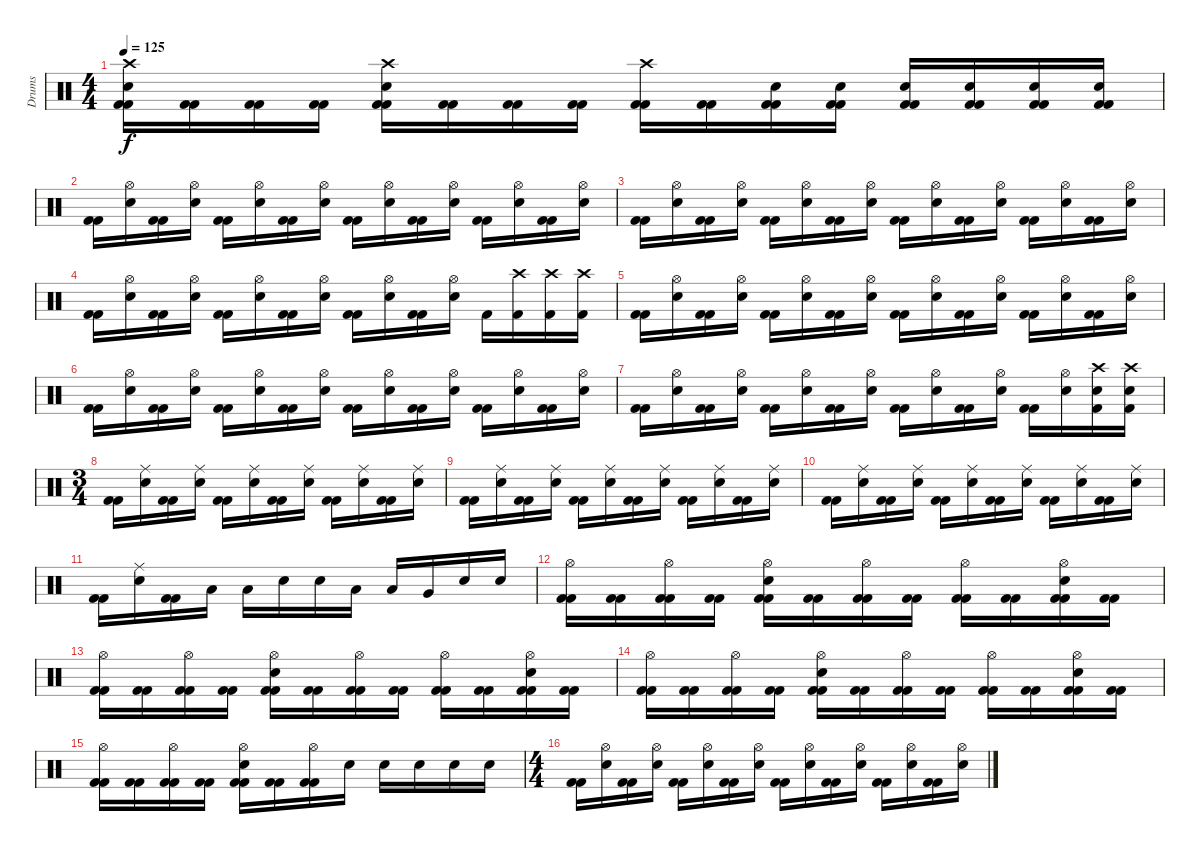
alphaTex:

\track ("Drums" "Drums") {instrument percussion}
\staff {score}
\articulation defaults
\ts (4 4)
\tempo 125
\clef neutral
\ks c
("Crash high (hit)" "Snare (hit) 2" "Kick (hit) 2" "Kick (hit) 2").16{dy f} ("Kick (hit) 2" "Kick (hit) 2").16 ("Kick (hit) 2" "Kick (hit) 2").16 ("Kick (hit) 2" "Kick (hit) 2").16 ("Crash high (hit)" "Snare (hit) 2" "Kick (hit) 2" "Kick (hit) 2").16 ("Kick (hit) 2" "Kick (hit) 2").16 ("Kick (hit) 2" "Kick (hit) 2").16 ("Kick (hit) 2" "Kick (hit) 2").16 ("Crash high (hit)" "Kick (hit) 2" "Kick (hit) 2").16 ("Kick (hit) 2" "Kick (hit) 2").16 ("Snare (hit) 2" "Kick (hit) 2" "Kick (hit) 2").16 ("Snare (hit) 2" "Kick (hit) 2" "Kick (hit) 2").16 ("Snare (hit) 2" "Kick (hit) 2" "Kick (hit) 2").16 ("Snare (hit) 2" "Kick (hit) 2" "Kick (hit) 2").16 ("Snare (hit) 2" "Kick (hit) 2" "Kick (hit) 2").16 ("Snare (hit) 2" "Kick (hit) 2" "Kick (hit) 2").16 |
("Kick (hit) 2" "Kick (hit) 2").16 ("Hi-Hat (open)" "Snare (hit) 2").16 ("Kick (hit) 2" "Kick (hit) 2").16 ("Hi-Hat (open)" "Snare (hit) 2").16 ("Kick (hit) 2" "Kick (hit) 2").16 ("Hi-Hat (open)" "Snare (hit) 2").16 ("Kick (hit) 2" "Kick (hit) 2").16 ("Hi-Hat (open)" "Snare (hit) 2").16 ("Kick (hit) 2" "Kick (hit) 2").16 ("Hi-Hat (open)" "Snare (hit) 2").16 ("Kick (hit) 2" "Kick (hit) 2").16 ("Hi-Hat (open)" "Snare (hit) 2").16 ("Kick (hit) 2" "Kick (hit) 2").16 ("Hi-Hat (open)" "Snare (hit) 2").16 ("Kick (hit) 2" "Kick (hit) 2").16 ("Hi-Hat (open)" "Snare (hit) 2").16 |
("Kick (hit) 2" "Kick (hit) 2").16 ("Hi-Hat (open)" "Snare (hit) 2").16 ("Kick (hit) 2" "Kick (hit) 2").16 ("Hi-Hat (open)" "Snare (hit) 2").16 ("Kick (hit) 2" "Kick (hit) 2").16 ("Hi-Hat (open)" "Snare (hit) 2").16 ("Kick (hit) 2" "Kick (hit) 2").16 ("Hi-Hat (open)" "Snare (hit) 2").16 ("Kick (hit) 2" "Kick (hit) 2").16 ("Hi-Hat (open)" "Snare (hit) 2").16 ("Kick (hit) 2" "Kick (hit) 2").16 ("Hi-Hat (open)" "Snare (hit) 2").16 ("Kick (hit) 2" "Kick (hit) 2").16 ("Hi-Hat (open)" "Snare (hit) 2").16 ("Kick (hit) 2" "Kick (hit) 2").16 ("Hi-Hat (open)" "Snare (hit) 2").16 |
("Kick (hit) 2" "Kick (hit) 2").16 ("Hi-Hat (open)" "Snare (hit) 2").16 ("Kick (hit) 2" "Kick (hit) 2").16 ("Hi-Hat (open)" "Snare (hit) 2").16 ("Kick (hit) 2" "Kick (hit) 2").16 ("Hi-Hat (open)" "Snare (hit) 2").16 ("Kick (hit) 2" "Kick (hit) 2").16 ("Hi-Hat (open)" "Snare (hit) 2").16 ("Kick (hit) 2" "Kick (hit) 2").16 ("Hi-Hat (open)" "Snare (hit) 2").16 ("Kick (hit) 2" "Kick (hit) 2").16 ("Hi-Hat (open)" "Snare (hit) 2").16 "Kick (hit) 2".16 ("Crash high (hit)" "Kick (hit) 2").16 ("Crash high (hit)" "Kick (hit) 2").16 ("Crash high (hit)" "Kick (hit) 2").16 |
("Kick (hit) 2" "Kick (hit) 2").16 ("Hi-Hat (open)" "Snare (hit) 2").16 ("Kick (hit) 2" "Kick (hit) 2").16 ("Hi-Hat (open)" "Snare (hit) 2").16 ("Kick (hit) 2" "Kick (hit) 2").16 ("Hi-Hat (open)" "Snare (hit) 2").16 ("Kick (hit) 2" "Kick (hit) 2").16 ("Hi-Hat (open)" "Snare (hit) 2").16 ("Kick (hit) 2" "Kick (hit) 2").16 ("Hi-Hat (open)" "Snare (hit) 2").16 ("Kick (hit) 2" "Kick (hit) 2").16 ("Hi-Hat (open)" "Snare (hit) 2").16 ("Kick (hit) 2" "Kick (hit) 2").16 ("Hi-Hat (open)" "Snare (hit) 2").16 ("Kick (hit) 2" "Kick (hit) 2").16 ("Hi-Hat (open)" "Snare (hit) 2").16 |
("Kick (hit) 2" "Kick (hit) 2").16 ("Hi-Hat (open)" "Snare (hit) 2").16 ("Kick (hit) 2" "Kick (hit) 2").16 ("Hi-Hat (open)" "Snare (hit) 2").16 ("Kick (hit) 2" "Kick (hit) 2").16 ("Hi-Hat (open)" "Snare (hit) 2").16 ("Kick (hit) 2" "Kick (hit) 2").16 ("Hi-Hat (open)" "Snare (hit) 2").16 ("Kick (hit) 2" "Kick (hit) 2").16 ("Hi-Hat (open)" "Snare (hit) 2").16 ("Kick (hit) 2" "Kick (hit) 2").16 ("Hi-Hat (open)" "Snare (hit) 2").16 ("Kick (hit) 2" "Kick (hit) 2").16 ("Hi-Hat (open)" "Snare (hit) 2").16 ("Kick (hit) 2" "Kick (hit) 2").16 ("Hi-Hat (open)" "Snare (hit) 2").16 |
("Kick (hit) 2" "Kick (hit) 2").16 ("Hi-Hat (open)" "Snare (hit) 2").16 ("Kick (hit) 2" "Kick (hit) 2").16 ("Hi-Hat (open)" "Snare (hit) 2").16 ("Kick (hit) 2" "Kick (hit) 2").16 ("Hi-Hat (open)" "Snare (hit) 2").16 ("Kick (hit) 2" "Kick (hit) 2").16 ("Hi-Hat (open)" "Snare (hit) 2").16 ("Kick (hit) 2" "Kick (hit) 2").16 ("Hi-Hat (open)" "Snare (hit) 2").16 ("Kick (hit) 2" "Kick (hit) 2").16 ("Hi-Hat (open)" "Snare (hit) 2").16 ("Kick (hit) 2" "Kick (hit) 2").16 ("Hi-Hat (open)" "Snare (hit) 2").16 ("Crash high (hit)" "Snare (hit) 2" "Kick (hit) 2").16 ("Crash high (hit)" "Snare (hit) 2" "Kick (hit) 2").16 |
\ts (3 4)
("Kick (hit) 2" "Kick (hit) 2").16 ("Ride (middle)" "Snare (hit) 2").16 ("Kick (hit) 2" "Kick (hit) 2").16 ("Ride (middle)" "Snare (hit) 2").16 ("Kick (hit) 2" "Kick (hit) 2").16 ("Ride (middle)" "Snare (hit) 2").16 ("Kick (hit) 2" "Kick (hit) 2").16 ("Ride (middle)" "Snare (hit) 2").16 ("Kick (hit) 2" "Kick (hit) 2").16 ("Ride (middle)" "Snare (hit) 2").16 ("Kick (hit) 2" "Kick (hit) 2").16 ("Ride (middle)" "Snare (hit) 2").16 |
("Kick (hit) 2" "Kick (hit) 2").16 ("Ride (middle)" "Snare (hit) 2").16 ("Kick (hit) 2" "Kick (hit) 2").16 ("Ride (middle)" "Snare (hit) 2").16 ("Kick (hit) 2" "Kick (hit) 2").16 ("Ride (middle)" "Snare (hit) 2").16 ("Kick (hit) 2" "Kick (hit) 2").16 ("Ride (middle)" "Snare (hit) 2").16 ("Kick (hit) 2" "Kick (hit) 2").16 ("Ride (middle)" "Snare (hit) 2").16 ("Kick (hit) 2" "Kick (hit) 2").16 ("Ride (middle)" "Snare (hit) 2").16 |
("Kick (hit) 2" "Kick (hit) 2").16 ("Ride (middle)" "Snare (hit) 2").16 ("Kick (hit) 2" "Kick (hit) 2").16 ("Ride (middle)" "Snare (hit) 2").16 ("Kick (hit) 2" "Kick (hit) 2").16 ("Ride (middle)" "Snare (hit) 2").16 ("Kick (hit) 2" "Kick (hit) 2").16 ("Ride (middle)" "Snare (hit) 2").16 ("Kick (hit) 2" "Kick (hit) 2").16 ("Ride (middle)" "Snare (hit) 2").16 ("Kick (hit) 2" "Kick (hit) 2").16 ("Ride (middle)" "Snare (hit) 2").16 |
("Kick (hit) 2" "Kick (hit) 2").16 ("Ride (middle)" "Snare (hit) 2").16 ("Kick (hit) 2" "Kick (hit) 2").16 "Low Tom (hit)".16 "Low Tom (hit)".16 "Snare (hit) 2".16 "Snare (hit) 2".16 "Low Tom (hit)".16 "Low Tom (hit)".16 "Very Low Tom (hit)".16 "Snare (hit) 2".16 "Snare (hit) 2".16 |
("Hi-Hat (open)" "Kick (hit) 2" "Kick (hit) 2").16 ("Kick (hit) 2" "Kick (hit) 2").16 ("Hi-Hat (open)" "Kick (hit) 2" "Kick (hit) 2").16 ("Kick (hit) 2" "Kick (hit) 2").16 ("Hi-Hat (open)" "Snare (hit) 2" "Kick (hit) 2" "Kick (hit) 2").16 ("Kick (hit) 2" "Kick (hit) 2").16 ("Hi-Hat (open)" "Kick (hit) 2" "Kick (hit) 2").16 ("Kick (hit) 2" "Kick (hit) 2").16 ("Hi-Hat (open)" "Kick (hit) 2" "Kick (hit) 2").16 ("Kick (hit) 2" "Kick (hit) 2").16 ("Hi-Hat (open)" "Snare (hit) 2" "Kick (hit) 2" "Kick (hit) 2").16 ("Kick (hit) 2" "Kick (hit) 2").16 |
("Hi-Hat (open)" "Kick (hit) 2" "Kick (hit) 2").16 ("Kick (hit) 2" "Kick (hit) 2").16 ("Hi-Hat (open)" "Kick (hit) 2" "Kick (hit) 2").16 ("Kick (hit) 2" "Kick (hit) 2").16 ("Hi-Hat (open)" "Snare (hit) 2" "Kick (hit) 2" "Kick (hit) 2").16 ("Kick (hit) 2" "Kick (hit) 2").16 ("Hi-Hat (open)" "Kick (hit) 2" "Kick (hit) 2").16 ("Kick (hit) 2" "Kick (hit) 2").16 ("Hi-Hat (open)" "Kick (hit) 2" "Kick (hit) 2").16 ("Kick (hit) 2" "Kick (hit) 2").16 ("Hi-Hat (open)" "Snare (hit) 2" "Kick (hit) 2" "Kick (hit) 2").16 ("Kick (hit) 2" "Kick (hit) 2").16 |
("Hi-Hat (open)" "Kick (hit) 2" "Kick (hit) 2").16 ("Kick (hit) 2" "Kick (hit) 2").16 ("Hi-Hat (open)" "Kick (hit) 2" "Kick (hit) 2").16 ("Kick (hit) 2" "Kick (hit) 2").16 ("Hi-Hat (open)" "Snare (hit) 2" "Kick (hit) 2" "Kick (hit) 2").16 ("Kick (hit) 2" "Kick (hit) 2").16 ("Hi-Hat (open)" "Kick (hit) 2" "Kick (hit) 2").16 ("Kick (hit) 2" "Kick (hit) 2").16 ("Hi-Hat (open)" "Kick (hit) 2" "Kick (hit) 2").16 ("Kick (hit) 2" "Kick (hit) 2").16 ("Hi-Hat (open)" "Snare (hit) 2" "Kick (hit) 2" "Kick (hit) 2").16 ("Kick (hit) 2" "Kick (hit) 2").16 |
("Hi-Hat (open)" "Kick (hit) 2" "Kick (hit) 2").16 ("Kick (hit) 2" "Kick (hit) 2").16 ("Hi-Hat (open)" "Kick (hit) 2" "Kick (hit) 2").16 ("Kick (hit) 2" "Kick (hit) 2").16 ("Hi-Hat (open)" "Snare (hit) 2" "Kick (hit) 2" "Kick (hit) 2").16 ("Kick (hit) 2" "Kick (hit) 2").16 ("Hi-Hat (open)" "Kick (hit) 2" "Kick (hit) 2").16 "Snare (hit) 2".16 "Snare (hit) 2".16 "Snare (hit) 2".16 "Snare (hit) 2".16 "Snare (hit) 2".16 |
\ts (4 4)
("Kick (hit) 2" "Kick (hit) 2").16 ("Hi-Hat (open)" "Snare (hit) 2").16 ("Kick (hit) 2" "Kick (hit) 2").16 ("Hi-Hat (open)" "Snare (hit) 2").16 ("Kick (hit) 2" "Kick (hit) 2").16 ("Hi-Hat (open)" "Snare (hit) 2").16 ("Kick (hit) 2" "Kick (hit) 2").16 ("Hi-Hat (open)" "Snare (hit) 2").16 ("Kick (hit) 2" "Kick (hit) 2").16 ("Hi-Hat (open)" "Snare (hit) 2").16 ("Kick (hit) 2" "Kick (hit) 2").16 ("Hi-Hat (open)" "Snare (hit) 2").16 ("Kick (hit) 2" "Kick (hit) 2").16 ("Hi-Hat (open)" "Snare (hit) 2").16 ("Kick (hit) 2" "Kick (hit) 2").16 ("Hi-Hat (open)" "Snare (hit) 2").16
